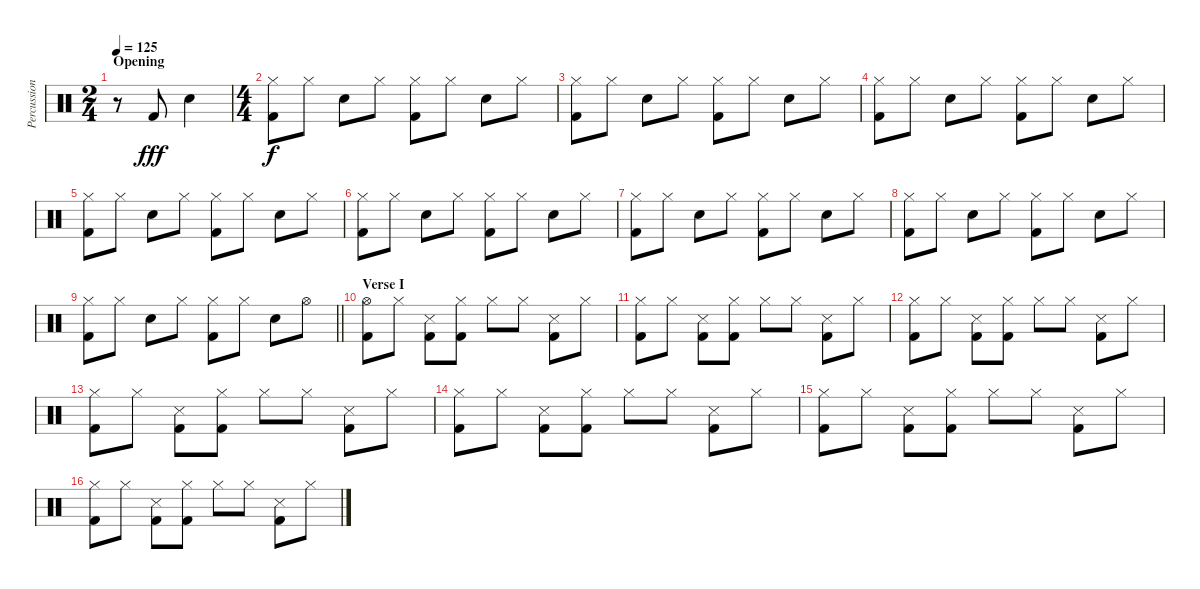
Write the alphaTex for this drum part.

\track ("Percussion" "Percussion") {instrument percussion}
\staff {score}
\articulation defaults
\ts (2 4)
\section ("" "Opening")
\tempo 125
\clef neutral
\ks c
r.8{dy fff} "Kick (hit) 2".8 "Snare (hit) 2".4 |
\ts (4 4)
("Hi-Hat (closed)" "Kick (hit) 2").8{dy f} "Hi-Hat (closed)".8 "Electric Snare (hit)".8 "Hi-Hat (closed)".8 ("Hi-Hat (closed)" "Kick (hit) 2").8 "Hi-Hat (closed)".8 "Electric Snare (hit)".8 "Hi-Hat (closed)".8 |
("Hi-Hat (closed)" "Kick (hit) 2").8 "Hi-Hat (closed)".8 "Electric Snare (hit)".8 "Hi-Hat (closed)".8 ("Hi-Hat (closed)" "Kick (hit) 2").8 "Hi-Hat (closed)".8 "Electric Snare (hit)".8 "Hi-Hat (closed)".8 |
("Hi-Hat (closed)" "Kick (hit) 2").8 "Hi-Hat (closed)".8 "Electric Snare (hit)".8 "Hi-Hat (closed)".8 ("Hi-Hat (closed)" "Kick (hit) 2").8 "Hi-Hat (closed)".8 "Electric Snare (hit)".8 "Hi-Hat (closed)".8 |
("Hi-Hat (closed)" "Kick (hit) 2").8 "Hi-Hat (closed)".8 "Electric Snare (hit)".8 "Hi-Hat (closed)".8 ("Hi-Hat (closed)" "Kick (hit) 2").8 "Hi-Hat (closed)".8 "Electric Snare (hit)".8 "Hi-Hat (closed)".8 |
("Hi-Hat (closed)" "Kick (hit) 2").8 "Hi-Hat (closed)".8 "Electric Snare (hit)".8 "Hi-Hat (closed)".8 ("Hi-Hat (closed)" "Kick (hit) 2").8 "Hi-Hat (closed)".8 "Electric Snare (hit)".8 "Hi-Hat (closed)".8 |
("Hi-Hat (closed)" "Kick (hit) 2").8 "Hi-Hat (closed)".8 "Electric Snare (hit)".8 "Hi-Hat (closed)".8 ("Hi-Hat (closed)" "Kick (hit) 2").8 "Hi-Hat (closed)".8 "Electric Snare (hit)".8 "Hi-Hat (closed)".8 |
("Hi-Hat (closed)" "Kick (hit) 2").8 "Hi-Hat (closed)".8 "Electric Snare (hit)".8 "Hi-Hat (closed)".8 ("Hi-Hat (closed)" "Kick (hit) 2").8 "Hi-Hat (closed)".8 "Electric Snare (hit)".8 "Hi-Hat (closed)".8 |
\barLineRight lightlight
("Hi-Hat (closed)" "Kick (hit) 2").8 "Hi-Hat (closed)".8 "Electric Snare (hit)".8 "Hi-Hat (closed)".8 ("Hi-Hat (closed)" "Kick (hit) 2").8 "Hi-Hat (closed)".8 "Electric Snare (hit)".8 "Hi-Hat (open)".8 |
\section ("" "Verse I")
("Hi-Hat (open)" "Kick (hit) 2").8 "Hi-Hat (closed)".8 ("Snare (side stick) 3" "Kick (hit) 2").8 ("Hi-Hat (closed)" "Kick (hit) 2").8 "Hi-Hat (closed)".8 "Hi-Hat (closed)".8 ("Snare (side stick) 3" "Kick (hit) 2").8 "Hi-Hat (closed)".8 |
("Hi-Hat (closed)" "Kick (hit) 2").8 "Hi-Hat (closed)".8 ("Snare (side stick) 3" "Kick (hit) 2").8 ("Hi-Hat (closed)" "Kick (hit) 2").8 "Hi-Hat (closed)".8 "Hi-Hat (closed)".8 ("Snare (side stick) 3" "Kick (hit) 2").8 "Hi-Hat (closed)".8 |
("Hi-Hat (closed)" "Kick (hit) 2").8 "Hi-Hat (closed)".8 ("Snare (side stick) 3" "Kick (hit) 2").8 ("Hi-Hat (closed)" "Kick (hit) 2").8 "Hi-Hat (closed)".8 "Hi-Hat (closed)".8 ("Snare (side stick) 3" "Kick (hit) 2").8 "Hi-Hat (closed)".8 |
("Hi-Hat (closed)" "Kick (hit) 2").8 "Hi-Hat (closed)".8 ("Snare (side stick) 3" "Kick (hit) 2").8 ("Hi-Hat (closed)" "Kick (hit) 2").8 "Hi-Hat (closed)".8 "Hi-Hat (closed)".8 ("Snare (side stick) 3" "Kick (hit) 2").8 "Hi-Hat (closed)".8 |
("Hi-Hat (closed)" "Kick (hit) 2").8 "Hi-Hat (closed)".8 ("Snare (side stick) 3" "Kick (hit) 2").8 ("Hi-Hat (closed)" "Kick (hit) 2").8 "Hi-Hat (closed)".8 "Hi-Hat (closed)".8 ("Snare (side stick) 3" "Kick (hit) 2").8 "Hi-Hat (closed)".8 |
("Hi-Hat (closed)" "Kick (hit) 2").8 "Hi-Hat (closed)".8 ("Snare (side stick) 3" "Kick (hit) 2").8 ("Hi-Hat (closed)" "Kick (hit) 2").8 "Hi-Hat (closed)".8 "Hi-Hat (closed)".8 ("Snare (side stick) 3" "Kick (hit) 2").8 "Hi-Hat (closed)".8 |
("Hi-Hat (closed)" "Kick (hit) 2").8 "Hi-Hat (closed)".8 ("Snare (side stick) 3" "Kick (hit) 2").8 ("Hi-Hat (closed)" "Kick (hit) 2").8 "Hi-Hat (closed)".8 "Hi-Hat (closed)".8 ("Snare (side stick) 3" "Kick (hit) 2").8 "Hi-Hat (closed)".8
